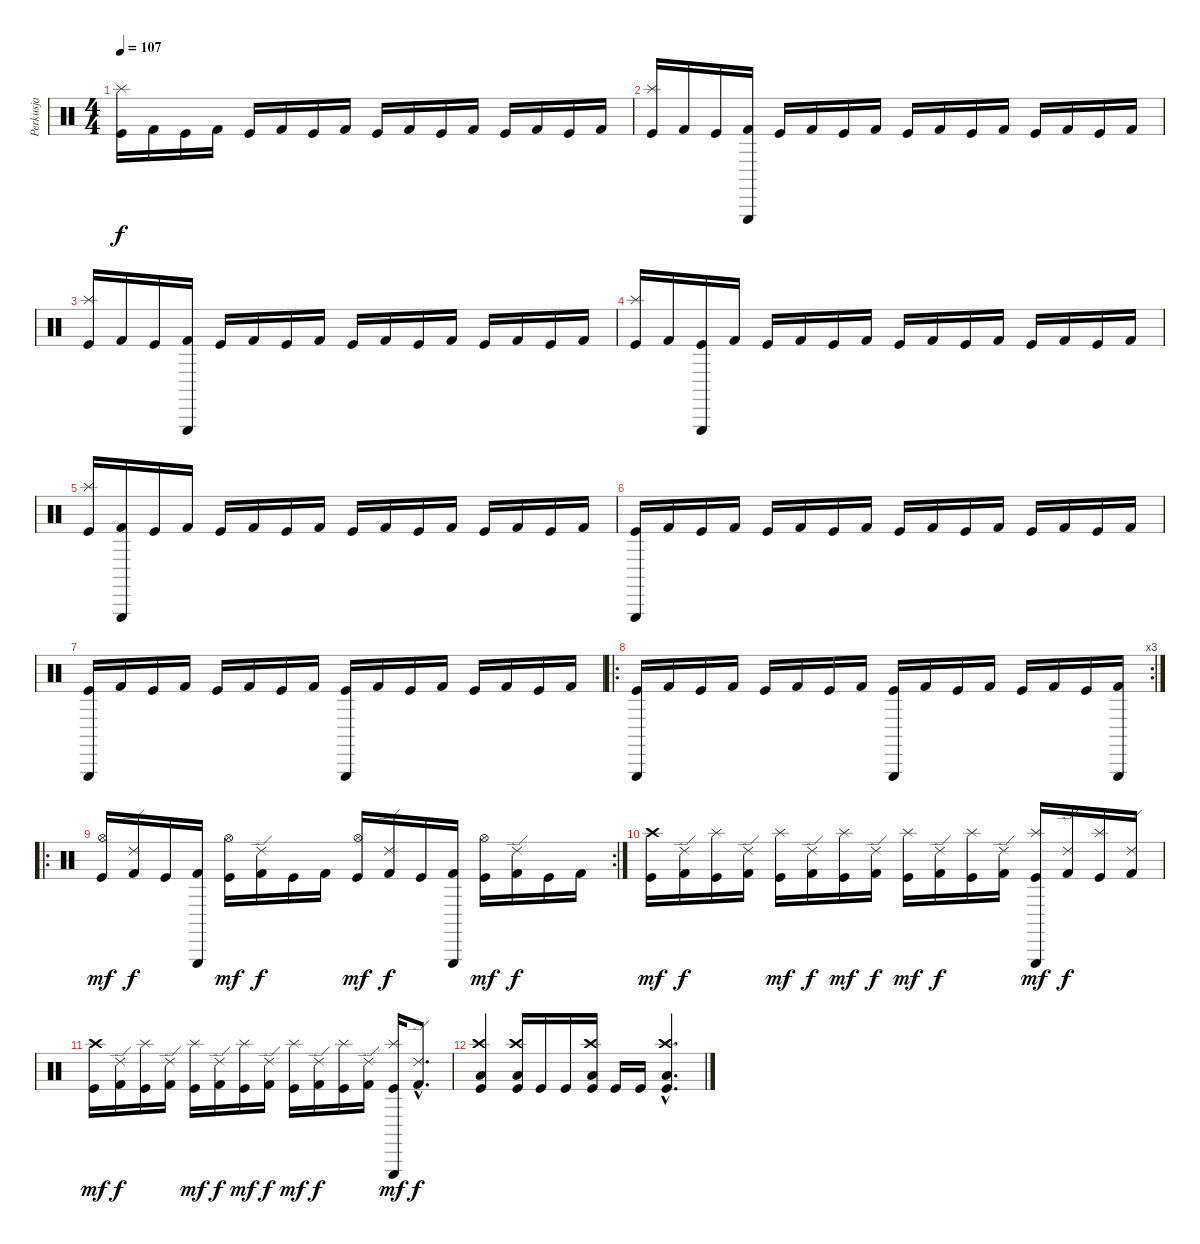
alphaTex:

\track ("Perkusja" "Perkusja") {instrument percussion}
\staff {score}
\articulation defaults
\ts (4 4)
\tempo 107
\clef neutral
\ks c
("Splash (hit)" "Kick (hit)").16{dy f} "Kick (hit) 2".16 "Kick (hit)".16 "Kick (hit) 2".16 "Kick (hit)".16 "Kick (hit) 2".16 "Kick (hit)".16 "Kick (hit) 2".16 "Kick (hit)".16 "Kick (hit) 2".16 "Kick (hit)".16 "Kick (hit) 2".16 "Kick (hit)".16 "Kick (hit) 2".16 "Kick (hit)".16 "Kick (hit) 2".16 |
("Splash (hit)" "Kick (hit)").16 "Kick (hit) 2".16 "Kick (hit)".16 ("Triangle (hit)" "Kick (hit) 2").16 "Kick (hit)".16 "Kick (hit) 2".16 "Kick (hit)".16 "Kick (hit) 2".16 "Kick (hit)".16 "Kick (hit) 2".16 "Kick (hit)".16 "Kick (hit) 2".16 "Kick (hit)".16 "Kick (hit) 2".16 "Kick (hit)".16 "Kick (hit) 2".16 |
("Splash (hit)" "Kick (hit)").16 "Kick (hit) 2".16 "Kick (hit)".16 ("Triangle (hit)" "Kick (hit) 2").16 "Kick (hit)".16 "Kick (hit) 2".16 "Kick (hit)".16 "Kick (hit) 2".16 "Kick (hit)".16 "Kick (hit) 2".16 "Kick (hit)".16 "Kick (hit) 2".16 "Kick (hit)".16 "Kick (hit) 2".16 "Kick (hit)".16 "Kick (hit) 2".16 |
("Splash (hit)" "Kick (hit)").16 "Kick (hit) 2".16 ("Triangle (hit)" "Kick (hit)").16 "Kick (hit) 2".16 "Kick (hit)".16 "Kick (hit) 2".16 "Kick (hit)".16 "Kick (hit) 2".16 "Kick (hit)".16 "Kick (hit) 2".16 "Kick (hit)".16 "Kick (hit) 2".16 "Kick (hit)".16 "Kick (hit) 2".16 "Kick (hit)".16 "Kick (hit) 2".16 |
("Splash (hit)" "Kick (hit)").16 ("Triangle (hit)" "Kick (hit) 2").16 "Kick (hit)".16 "Kick (hit) 2".16 "Kick (hit)".16 "Kick (hit) 2".16 "Kick (hit)".16 "Kick (hit) 2".16 "Kick (hit)".16 "Kick (hit) 2".16 "Kick (hit)".16 "Kick (hit) 2".16 "Kick (hit)".16 "Kick (hit) 2".16 "Kick (hit)".16 "Kick (hit) 2".16 |
("Triangle (hit)" "Kick (hit)").16 "Kick (hit) 2".16 "Kick (hit)".16 "Kick (hit) 2".16 "Kick (hit)".16 "Kick (hit) 2".16 "Kick (hit)".16 "Kick (hit) 2".16 "Kick (hit)".16 "Kick (hit) 2".16 "Kick (hit)".16 "Kick (hit) 2".16 "Kick (hit)".16 "Kick (hit) 2".16 "Kick (hit)".16 "Kick (hit) 2".16 |
("Triangle (hit)" "Kick (hit)").16 "Kick (hit) 2".16 "Kick (hit)".16 "Kick (hit) 2".16 "Kick (hit)".16 "Kick (hit) 2".16 "Kick (hit)".16 "Kick (hit) 2".16 ("Triangle (hit)" "Kick (hit)").16 "Kick (hit) 2".16 "Kick (hit)".16 "Kick (hit) 2".16 "Kick (hit)".16 "Kick (hit) 2".16 "Kick (hit)".16 "Kick (hit) 2".16 |
\ro
\rc 3
("Triangle (hit)" "Kick (hit)").16 "Kick (hit) 2".16 "Kick (hit)".16 "Kick (hit) 2".16 "Kick (hit)".16 "Kick (hit) 2".16 "Kick (hit)".16 "Kick (hit) 2".16 ("Triangle (hit)" "Kick (hit)").16 "Kick (hit) 2".16 "Kick (hit)".16 "Kick (hit) 2".16 "Kick (hit)".16 "Kick (hit) 2".16 "Kick (hit)".16 ("Triangle (hit)" "Kick (hit) 2").16 |
\ro
\rc 2
("Hi-Hat (open)" "Kick (hit)").16{dy mf} ("Ride (edge) 2" "Kick (hit) 2").16{dy f} "Kick (hit)".16 ("Triangle (hit)" "Kick (hit) 2").16 ("Hi-Hat (open)" "Kick (hit)").16{dy mf} ("Ride (edge) 2" "Kick (hit) 2").16{dy f} "Kick (hit)".16 "Kick (hit) 2".16 ("Hi-Hat (open)" "Kick (hit)").16{dy mf} ("Ride (edge) 2" "Kick (hit) 2").16{dy f} "Kick (hit)".16 ("Triangle (hit)" "Kick (hit) 2").16 ("Hi-Hat (open)" "Kick (hit)").16{dy mf} ("Ride (edge) 2" "Kick (hit) 2").16{dy f} "Kick (hit)".16 "Kick (hit) 2".16 |
("Crash high (hit)" "Kick (hit)").16{dy mf} ("Ride (edge) 2" "Kick (hit) 2").16{dy f} ("Splash (hit)" "Kick (hit)").16 ("Ride (edge) 2" "Kick (hit) 2").16 ("Splash (hit)" "Kick (hit)").16{dy mf} ("Ride (edge) 2" "Kick (hit) 2").16{dy f} ("Splash (hit)" "Kick (hit)").16{dy mf} ("Ride (edge) 2" "Kick (hit) 2").16{dy f} ("Splash (hit)" "Kick (hit)").16{dy mf} ("Ride (edge) 2" "Kick (hit) 2").16{dy f} ("Splash (hit)" "Kick (hit)").16 ("Ride (edge) 2" "Kick (hit) 2").16 ("Splash (hit)" "Triangle (hit)" "Kick (hit)").16{dy mf} ("Ride (edge) 2" "Kick (hit) 2").16{dy f} ("Splash (hit)" "Kick (hit)").16 ("Ride (edge) 2" "Kick (hit) 2").16 |
("Crash high (hit)" "Kick (hit)").16{dy mf} ("Ride (edge) 2" "Kick (hit) 2").16{dy f} ("Splash (hit)" "Kick (hit)").16 ("Ride (edge) 2" "Kick (hit) 2").16 ("Splash (hit)" "Kick (hit)").16{dy mf} ("Ride (edge) 2" "Kick (hit) 2").16{dy f} ("Splash (hit)" "Kick (hit)").16{dy mf} ("Ride (edge) 2" "Kick (hit) 2").16{dy f} ("Splash (hit)" "Kick (hit)").16{dy mf} ("Ride (edge) 2" "Kick (hit) 2").16{dy f} ("Splash (hit)" "Kick (hit)").16 ("Ride (edge) 2" "Kick (hit) 2").16 ("Splash (hit)" "Triangle (hit)" "Kick (hit)").16{dy mf} ("Ride (edge) 2"{hac} "Kick (hit) 2"{hac}).8{d dy f} |
("Crash high (hit)" "Low Floor Tom (hit)" "Kick (hit)").4 ("Crash high (hit)" "Low Floor Tom (hit)" "Kick (hit)").16 "Kick (hit)".16 "Kick (hit)".16 ("Crash high (hit)" "Low Floor Tom (hit)" "Kick (hit)").16 "Kick (hit)".16 "Kick (hit)".16 ("Crash high (hit)"{hac} "Low Floor Tom (hit)"{hac} "Kick (hit)"{hac}).4{d}
